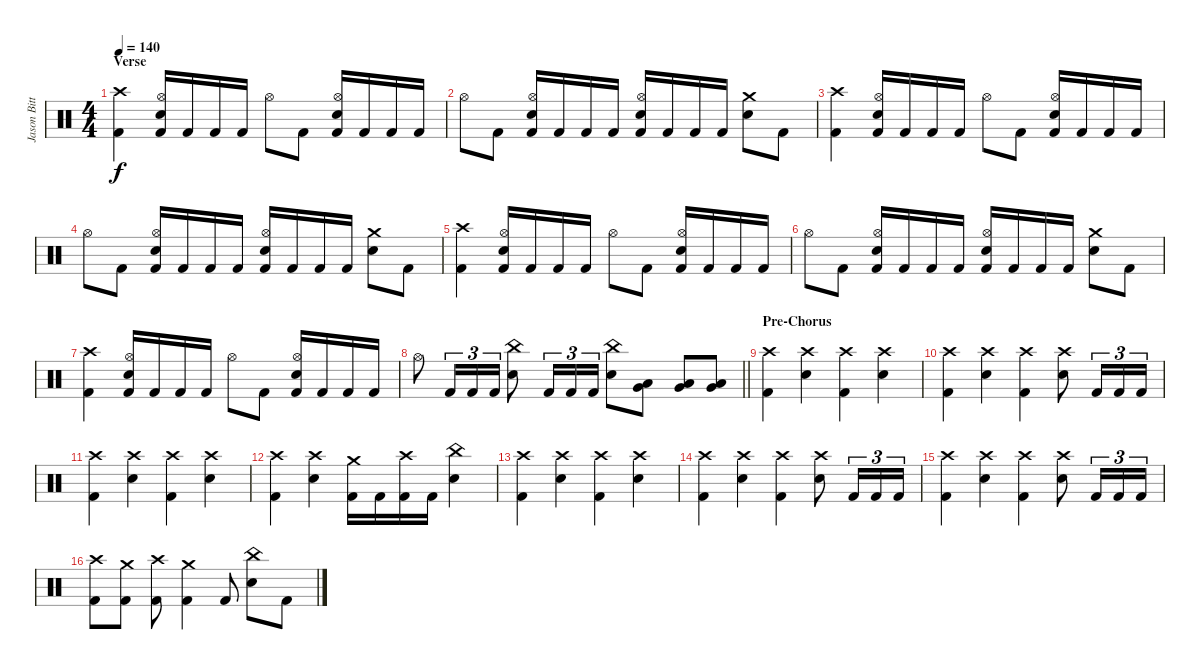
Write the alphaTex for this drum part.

\track ("Jason Bittner" "Jason Bitt") {instrument percussion}
\staff {score}
\articulation defaults
\ts (4 4)
\section ("" "Verse")
\tempo 140
\clef neutral
\ks c
("Crash high (hit)" "Kick (hit) 2").4{dy f} ("Hi-Hat (open)" "Electric Snare (hit)" "Kick (hit) 2").16 "Kick (hit) 2".16 "Kick (hit) 2".16 "Kick (hit) 2".16 "Hi-Hat (open)".8 "Kick (hit) 2".8 ("Hi-Hat (open)" "Electric Snare (hit)" "Kick (hit) 2").16 "Kick (hit) 2".16 "Kick (hit) 2".16 "Kick (hit) 2".16 |
"Hi-Hat (open)".8 "Kick (hit) 2".8 ("Hi-Hat (open)" "Electric Snare (hit)" "Kick (hit) 2").16 "Kick (hit) 2".16 "Kick (hit) 2".16 "Kick (hit) 2".16 ("Hi-Hat (open)" "Electric Snare (hit)" "Kick (hit) 2").16 "Kick (hit) 2".16 "Kick (hit) 2".16 "Kick (hit) 2".16 ("Crash medium (hit)" "Electric Snare (hit)").8 "Kick (hit) 2".8 |
("Crash high (hit)" "Kick (hit) 2").4 ("Hi-Hat (open)" "Electric Snare (hit)" "Kick (hit) 2").16 "Kick (hit) 2".16 "Kick (hit) 2".16 "Kick (hit) 2".16 "Hi-Hat (open)".8 "Kick (hit) 2".8 ("Hi-Hat (open)" "Electric Snare (hit)" "Kick (hit) 2").16 "Kick (hit) 2".16 "Kick (hit) 2".16 "Kick (hit) 2".16 |
"Hi-Hat (open)".8 "Kick (hit) 2".8 ("Hi-Hat (open)" "Electric Snare (hit)" "Kick (hit) 2").16 "Kick (hit) 2".16 "Kick (hit) 2".16 "Kick (hit) 2".16 ("Hi-Hat (open)" "Electric Snare (hit)" "Kick (hit) 2").16 "Kick (hit) 2".16 "Kick (hit) 2".16 "Kick (hit) 2".16 ("Crash medium (hit)" "Electric Snare (hit)").8 "Kick (hit) 2".8 |
("Crash high (hit)" "Kick (hit) 2").4 ("Hi-Hat (open)" "Electric Snare (hit)" "Kick (hit) 2").16 "Kick (hit) 2".16 "Kick (hit) 2".16 "Kick (hit) 2".16 "Hi-Hat (open)".8 "Kick (hit) 2".8 ("Hi-Hat (open)" "Electric Snare (hit)" "Kick (hit) 2").16 "Kick (hit) 2".16 "Kick (hit) 2".16 "Kick (hit) 2".16 |
"Hi-Hat (open)".8 "Kick (hit) 2".8 ("Hi-Hat (open)" "Electric Snare (hit)" "Kick (hit) 2").16 "Kick (hit) 2".16 "Kick (hit) 2".16 "Kick (hit) 2".16 ("Hi-Hat (open)" "Electric Snare (hit)" "Kick (hit) 2").16 "Kick (hit) 2".16 "Kick (hit) 2".16 "Kick (hit) 2".16 ("Crash medium (hit)" "Electric Snare (hit)").8 "Kick (hit) 2".8 |
("Crash high (hit)" "Kick (hit) 2").4 ("Hi-Hat (open)" "Electric Snare (hit)" "Kick (hit) 2").16 "Kick (hit) 2".16 "Kick (hit) 2".16 "Kick (hit) 2".16 "Hi-Hat (open)".8 "Kick (hit) 2".8 ("Hi-Hat (open)" "Electric Snare (hit)" "Kick (hit) 2").16 "Kick (hit) 2".16 "Kick (hit) 2".16 "Kick (hit) 2".16 |
\barLineRight lightlight "Hi-Hat (open)".8 "Kick (hit) 2".16{tu (3 2)} "Kick (hit) 2".16{tu (3 2)} "Kick (hit) 2".16{tu (3 2)}
("China (hit)" "Electric Snare (hit)").8 "Kick (hit) 2".16{tu (3 2)} "Kick (hit) 2".16{tu (3 2)} "Kick (hit) 2".16{tu (3 2)} ("China (hit)" "Electric Snare (hit)").8 ("Low Tom (hit)" "Very Low Tom (hit)").8 ("Low Tom (hit)" "Very Low Tom (hit)").8 ("Low Tom (hit)" "Very Low Tom (hit)").8 |
\section ("" "Pre-Chorus")
("Crash high (hit)" "Kick (hit) 2").4 ("Crash high (hit)" "Electric Snare (hit)").4 ("Crash high (hit)" "Kick (hit) 2").4 ("Crash high (hit)" "Electric Snare (hit)").4 |
("Crash high (hit)" "Kick (hit) 2").4 ("Crash high (hit)" "Electric Snare (hit)").4 ("Crash high (hit)" "Kick (hit) 2").4 ("Crash high (hit)" "Electric Snare (hit)").8 "Kick (hit) 2".16{tu (3 2)} "Kick (hit) 2".16{tu (3 2)} "Kick (hit) 2".16{tu (3 2)} |
("Crash high (hit)" "Kick (hit) 2").4 ("Crash high (hit)" "Electric Snare (hit)").4 ("Crash high (hit)" "Kick (hit) 2").4 ("Crash high (hit)" "Electric Snare (hit)").4 |
("Crash high (hit)" "Kick (hit) 2").4 ("Crash high (hit)" "Electric Snare (hit)").4 ("Crash medium (hit)" "Kick (hit) 2").16 "Kick (hit) 2".16 ("Crash high (hit)" "Kick (hit) 2").16 "Kick (hit) 2".16 ("China (hit)" "Electric Snare (hit)").4 |
("Crash high (hit)" "Kick (hit) 2").4 ("Crash high (hit)" "Electric Snare (hit)").4 ("Crash high (hit)" "Kick (hit) 2").4 ("Crash high (hit)" "Electric Snare (hit)").4 |
("Crash high (hit)" "Kick (hit) 2").4 ("Crash high (hit)" "Electric Snare (hit)").4 ("Crash high (hit)" "Kick (hit) 2").4 ("Crash high (hit)" "Electric Snare (hit)").8 "Kick (hit) 2".16{tu (3 2)} "Kick (hit) 2".16{tu (3 2)} "Kick (hit) 2".16{tu (3 2)} |
("Crash high (hit)" "Kick (hit) 2").4 ("Crash high (hit)" "Electric Snare (hit)").4 ("Crash high (hit)" "Kick (hit) 2").4 ("Crash high (hit)" "Electric Snare (hit)").8 "Kick (hit) 2".16{tu (3 2)} "Kick (hit) 2".16{tu (3 2)} "Kick (hit) 2".16{tu (3 2)} |
("Crash high (hit)" "Kick (hit) 2").8 ("Crash medium (hit)" "Kick (hit) 2").8 ("Crash high (hit)" "Kick (hit) 2").8 ("Crash medium (hit)" "Kick (hit) 2").4 "Kick (hit) 2".8 ("China (hit)" "Electric Snare (hit)").8 "Kick (hit) 2".8
